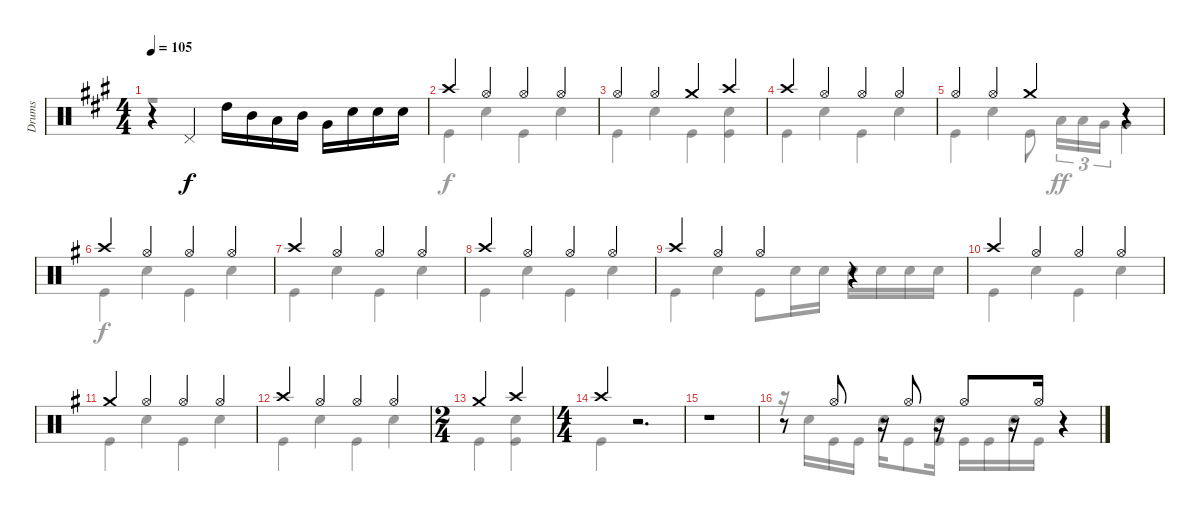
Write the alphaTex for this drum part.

\track ("Drums" "Drums") {instrument percussion}
\staff {score}
\articulation defaults
\voice
\ts (4 4)
\tempo 105
\clef neutral
\ks f#minor
r.4{dy f} "Pedal Hi-Hat (hit)".4 "High Tom (hit)".16{beam Down} "Mid Tom (hit)".16{beam Down} "Low Tom (hit)".16{beam Down} "Mid Tom (hit)".16{beam Down} "Very Low Tom (hit)".16{beam Down} "Snare (hit) 2".16{beam Down} "Snare (hit) 2".16{beam Down} "Snare (hit) 2".16{beam Down} |
"Crash high (hit)".4 "Hi-Hat (open)".4 "Hi-Hat (open)".4 "Hi-Hat (open)".4 |
"Hi-Hat (open)".4 "Hi-Hat (open)".4 "Crash medium (hit)".4 "Crash high (hit)".4 |
"Crash high (hit)".4 "Hi-Hat (open)".4 "Hi-Hat (open)".4 "Hi-Hat (open)".4 |
"Hi-Hat (open)".4 "Hi-Hat (open)".4 "Crash medium (hit)".4 r.4 |
\ks eminor "Crash high (hit)".4 "Hi-Hat (open)".4 "Hi-Hat (open)".4 "Hi-Hat (open)".4
|
"Crash high (hit)".4 "Hi-Hat (open)".4 "Hi-Hat (open)".4 "Hi-Hat (open)".4 |
"Crash high (hit)".4 "Hi-Hat (open)".4 "Hi-Hat (open)".4 "Hi-Hat (open)".4 |
"Crash high (hit)".4 "Hi-Hat (open)".4 "Hi-Hat (open)".4 r.4 |
"Crash high (hit)".4 "Hi-Hat (open)".4 "Hi-Hat (open)".4 "Hi-Hat (open)".4 |
"Crash medium (hit)".4 "Hi-Hat (open)".4 "Hi-Hat (open)".4 "Hi-Hat (open)".4 |
"Crash high (hit)".4 "Hi-Hat (open)".4 "Hi-Hat (open)".4 "Hi-Hat (open)".4 |
\ts (2 4)
"Crash medium (hit)".4 "Crash high (hit)".4 |
\ts (4 4)
"Crash high (hit)".4 r.2{d} |
r.1 |
r.8 "Hi-Hat (open)".8 r.16 "Hi-Hat (open)".8 r.16 "Hi-Hat (open)".8 r.16 "Hi-Hat (open)".16 r.4
\voice
\clef neutral
\ottava regular
\simile none
\ks f#minor
r.1{dy f} |
"Kick (hit)".4 "Snare (hit) 2".4 "Kick (hit)".4 "Snare (hit) 2".4 |
"Kick (hit)".4 "Snare (hit) 2".4 "Kick (hit)".4 ("Snare (hit) 2" "Kick (hit)").4 |
"Kick (hit)".4 "Snare (hit) 2".4 "Kick (hit)".4 "Snare (hit) 2".4 |
"Kick (hit)".4 "Snare (hit) 2".4 "Kick (hit)".8 "Low Tom (hit)".16{tu (3 2) dy ff} "Low Tom (hit)".16{tu (3 2)} "Very Low Tom (hit)".16{tu (3 2)} "Very Low Tom (hit)".4 |
\ks eminor "Kick (hit)".4{dy f} "Snare (hit) 2".4 "Kick (hit)".4 "Snare (hit) 2".4
|
"Kick (hit)".4 "Snare (hit) 2".4 "Kick (hit)".4 "Snare (hit) 2".4 |
"Kick (hit)".4 "Snare (hit) 2".4 "Kick (hit)".4 "Snare (hit) 2".4 |
"Kick (hit)".4 "Snare (hit) 2".4 "Kick (hit)".8 "Snare (hit) 2".16 "Snare (hit) 2".16 "Snare (hit) 2".16 "Snare (hit) 2".16 "Snare (hit) 2".16 "Snare (hit) 2".16 |
"Kick (hit)".4 "Snare (hit) 2".4 "Kick (hit)".4 "Snare (hit) 2".4 |
"Kick (hit)".4 "Snare (hit) 2".4 "Kick (hit)".4 "Snare (hit) 2".4 |
"Kick (hit)".4 "Snare (hit) 2".4 "Kick (hit)".4 "Snare (hit) 2".4 |
"Kick (hit)".4 ("Snare (hit) 2" "Kick (hit)").4 |
"Kick (hit)".4 r.2{d} |
|
r.16 "Snare (hit) 2".16 "Kick (hit)".16 "Kick (hit)".16 "Snare (hit) 2".16 "Kick (hit)".8 ("Snare (hit) 2" "Kick (hit)").16 "Kick (hit)".16 "Kick (hit)".16 "Snare (hit) 2".16 "Kick (hit)".16 r.4
